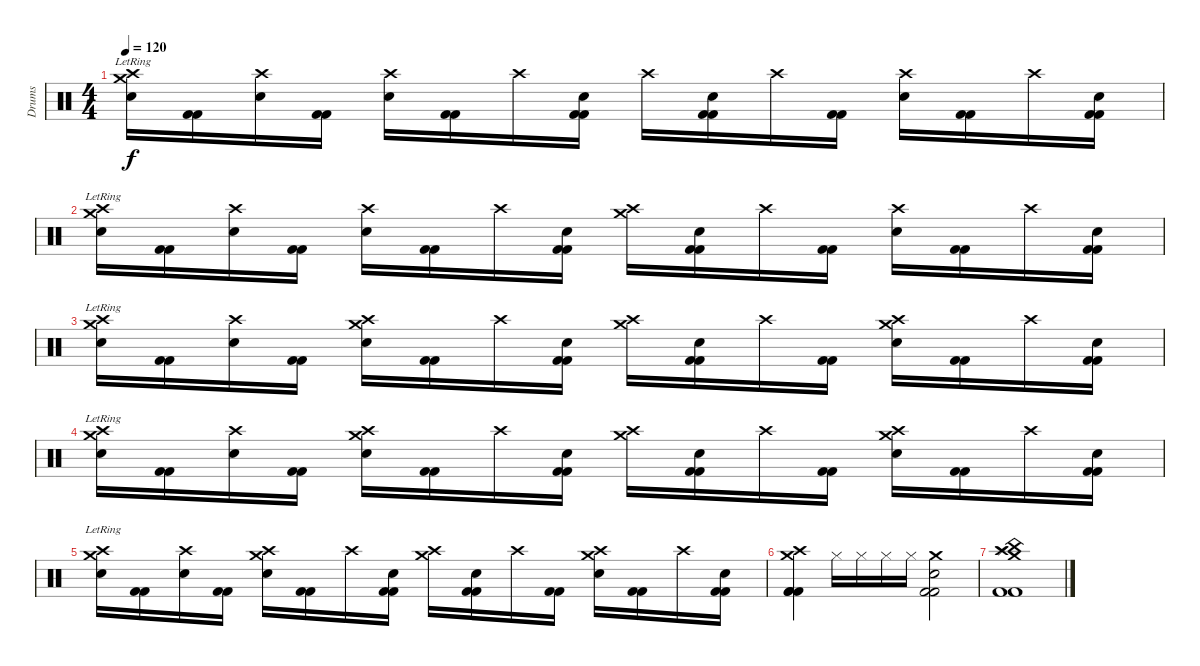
\track ("Drums" "Drums") {instrument percussion}
\staff {score}
\articulation defaults
\ts (4 4)
\tempo 120
\clef neutral
\ks c
("Crash medium (hit)"{lr} "Crash high (hit)"{lr} "Electric Snare (hit)").16{dy f} ("Kick (hit) 2" "Kick (hit) 2").16 ("Crash high (hit)" "Electric Snare (hit)").16 ("Kick (hit) 2" "Kick (hit) 2").16 ("Crash high (hit)" "Electric Snare (hit)").16 ("Kick (hit) 2" "Kick (hit) 2").16 "Crash high (hit)".16 ("Electric Snare (hit)" "Kick (hit) 2" "Kick (hit) 2").16 "Crash high (hit)".16 ("Electric Snare (hit)" "Kick (hit) 2" "Kick (hit) 2").16 "Crash high (hit)".16 ("Kick (hit) 2" "Kick (hit) 2").16 ("Crash high (hit)" "Electric Snare (hit)").16 ("Kick (hit) 2" "Kick (hit) 2").16 "Crash high (hit)".16 ("Electric Snare (hit)" "Kick (hit) 2" "Kick (hit) 2").16 |
("Crash medium (hit)"{lr} "Crash high (hit)"{lr} "Electric Snare (hit)").16 ("Kick (hit) 2" "Kick (hit) 2").16 ("Crash high (hit)" "Electric Snare (hit)").16 ("Kick (hit) 2" "Kick (hit) 2").16 ("Crash high (hit)" "Electric Snare (hit)").16 ("Kick (hit) 2" "Kick (hit) 2").16 "Crash high (hit)".16 ("Electric Snare (hit)" "Kick (hit) 2" "Kick (hit) 2").16 ("Crash medium (hit)" "Crash high (hit)").16 ("Electric Snare (hit)" "Kick (hit) 2" "Kick (hit) 2").16 "Crash high (hit)".16 ("Kick (hit) 2" "Kick (hit) 2").16 ("Crash high (hit)" "Electric Snare (hit)").16 ("Kick (hit) 2" "Kick (hit) 2").16 "Crash high (hit)".16 ("Electric Snare (hit)" "Kick (hit) 2" "Kick (hit) 2").16 |
("Crash medium (hit)"{lr} "Crash high (hit)"{lr} "Electric Snare (hit)").16 ("Kick (hit) 2" "Kick (hit) 2").16 ("Crash high (hit)" "Electric Snare (hit)").16 ("Kick (hit) 2" "Kick (hit) 2").16 ("Crash medium (hit)" "Crash high (hit)" "Electric Snare (hit)").16 ("Kick (hit) 2" "Kick (hit) 2").16 "Crash high (hit)".16 ("Electric Snare (hit)" "Kick (hit) 2" "Kick (hit) 2").16 ("Crash medium (hit)" "Crash high (hit)").16 ("Electric Snare (hit)" "Kick (hit) 2" "Kick (hit) 2").16 "Crash high (hit)".16 ("Kick (hit) 2" "Kick (hit) 2").16 ("Crash medium (hit)" "Crash high (hit)" "Electric Snare (hit)").16 ("Kick (hit) 2" "Kick (hit) 2").16 "Crash high (hit)".16 ("Electric Snare (hit)" "Kick (hit) 2" "Kick (hit) 2").16 |
("Crash medium (hit)"{lr} "Crash high (hit)"{lr} "Electric Snare (hit)").16 ("Kick (hit) 2" "Kick (hit) 2").16 ("Crash high (hit)" "Electric Snare (hit)").16 ("Kick (hit) 2" "Kick (hit) 2").16 ("Crash medium (hit)" "Crash high (hit)" "Electric Snare (hit)").16 ("Kick (hit) 2" "Kick (hit) 2").16 "Crash high (hit)".16 ("Electric Snare (hit)" "Kick (hit) 2" "Kick (hit) 2").16 ("Crash medium (hit)" "Crash high (hit)").16 ("Electric Snare (hit)" "Kick (hit) 2" "Kick (hit) 2").16 "Crash high (hit)".16 ("Kick (hit) 2" "Kick (hit) 2").16 ("Crash medium (hit)" "Crash high (hit)" "Electric Snare (hit)").16 ("Kick (hit) 2" "Kick (hit) 2").16 "Crash high (hit)".16 ("Electric Snare (hit)" "Kick (hit) 2" "Kick (hit) 2").16 |
("Crash medium (hit)"{lr} "Crash high (hit)"{lr} "Electric Snare (hit)").16 ("Kick (hit) 2" "Kick (hit) 2").16 ("Crash high (hit)" "Electric Snare (hit)").16 ("Kick (hit) 2" "Kick (hit) 2").16 ("Crash medium (hit)" "Crash high (hit)" "Electric Snare (hit)").16 ("Kick (hit) 2" "Kick (hit) 2").16 "Crash high (hit)".16 ("Electric Snare (hit)" "Kick (hit) 2" "Kick (hit) 2").16 ("Crash medium (hit)" "Crash high (hit)").16 ("Electric Snare (hit)" "Kick (hit) 2" "Kick (hit) 2").16 "Crash high (hit)".16 ("Kick (hit) 2" "Kick (hit) 2").16 ("Crash medium (hit)" "Crash high (hit)" "Electric Snare (hit)").16 ("Kick (hit) 2" "Kick (hit) 2").16 "Crash high (hit)".16 ("Electric Snare (hit)" "Kick (hit) 2" "Kick (hit) 2").16 |
("Crash medium (hit)" "Crash high (hit)" "Kick (hit) 2" "Kick (hit) 2" "Kick (hit) 2").4 "Hi-Hat (closed)".16 "Hi-Hat (closed)".16 "Hi-Hat (closed)".16 "Hi-Hat (closed)".16 ("Crash medium (hit)" "Kick (hit) 2" "Kick (hit) 2" "Snare (hit)").2 |
("Kick (hit) 2" "China (hit)" "Crash high (hit)" "Splash (hit)" "Crash medium (hit)" "Kick (hit) 2").1
